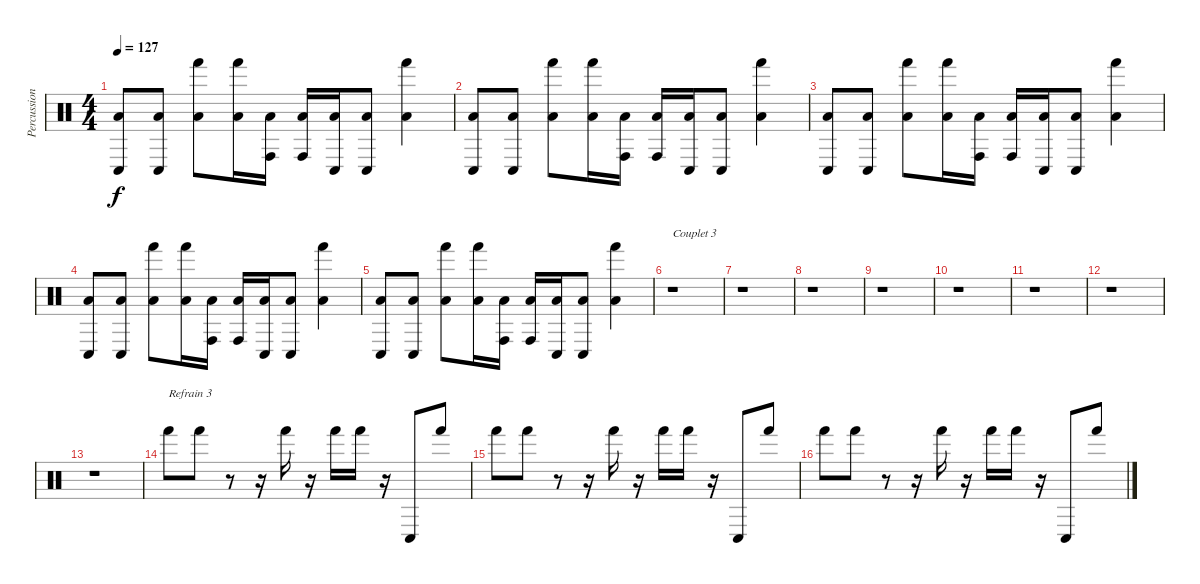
\track ("Percussions" "Percussion") {instrument percussion}
\staff {score}
\articulation defaults
\ts (4 4)
\tempo 127
\clef neutral
\ks c
("Conga low (hit)" "Low Floor Tom (hit)").8{dy f} ("Conga low (hit)" "Low Floor Tom (hit)").8 ("Hand (hit)" "Low Floor Tom (hit)").8 ("Hand (hit)" "Low Floor Tom (hit)").16 ("Conga high (hit)" "Low Floor Tom (hit)").16 ("Conga high (hit)" "Low Floor Tom (hit)").16 ("Conga low (hit)" "Low Floor Tom (hit)").16 ("Conga low (hit)" "Low Floor Tom (hit)").8 ("Hand (hit)" "Low Floor Tom (hit)").4 |
("Conga low (hit)" "Low Floor Tom (hit)").8 ("Conga low (hit)" "Low Floor Tom (hit)").8 ("Hand (hit)" "Low Floor Tom (hit)").8 ("Hand (hit)" "Low Floor Tom (hit)").16 ("Conga high (hit)" "Low Floor Tom (hit)").16 ("Conga high (hit)" "Low Floor Tom (hit)").16 ("Conga low (hit)" "Low Floor Tom (hit)").16 ("Conga low (hit)" "Low Floor Tom (hit)").8 ("Hand (hit)" "Low Floor Tom (hit)").4 |
("Conga low (hit)" "Low Floor Tom (hit)").8 ("Conga low (hit)" "Low Floor Tom (hit)").8 ("Hand (hit)" "Low Floor Tom (hit)").8 ("Hand (hit)" "Low Floor Tom (hit)").16 ("Conga high (hit)" "Low Floor Tom (hit)").16 ("Conga high (hit)" "Low Floor Tom (hit)").16 ("Conga low (hit)" "Low Floor Tom (hit)").16 ("Conga low (hit)" "Low Floor Tom (hit)").8 ("Hand (hit)" "Low Floor Tom (hit)").4 |
("Conga low (hit)" "Low Floor Tom (hit)").8 ("Conga low (hit)" "Low Floor Tom (hit)").8 ("Hand (hit)" "Low Floor Tom (hit)").8 ("Hand (hit)" "Low Floor Tom (hit)").16 ("Conga high (hit)" "Low Floor Tom (hit)").16 ("Conga high (hit)" "Low Floor Tom (hit)").16 ("Conga low (hit)" "Low Floor Tom (hit)").16 ("Conga low (hit)" "Low Floor Tom (hit)").8 ("Hand (hit)" "Low Floor Tom (hit)").4 |
("Conga low (hit)" "Low Floor Tom (hit)").8 ("Conga low (hit)" "Low Floor Tom (hit)").8 ("Hand (hit)" "Low Floor Tom (hit)").8 ("Hand (hit)" "Low Floor Tom (hit)").16 ("Conga high (hit)" "Low Floor Tom (hit)").16 ("Conga high (hit)" "Low Floor Tom (hit)").16 ("Conga low (hit)" "Low Floor Tom (hit)").16 ("Conga low (hit)" "Low Floor Tom (hit)").8 ("Hand (hit)" "Low Floor Tom (hit)").4 |
r.1{txt "Couplet 3"} |
r.1 |
r.1 |
r.1 |
r.1 |
r.1 |
r.1 |
r.1 |
"Hand (hit)".8{txt "Refrain 3"} "Hand (hit)".8 r.8 r.16 "Hand (hit)".16 r.16 "Hand (hit)".16 "Hand (hit)".16 r.16 "Conga low (hit)".8 "Hand (hit)".8 |
"Hand (hit)".8 "Hand (hit)".8 r.8 r.16 "Hand (hit)".16 r.16 "Hand (hit)".16 "Hand (hit)".16 r.16 "Conga low (hit)".8 "Hand (hit)".8 |
"Hand (hit)".8 "Hand (hit)".8 r.8 r.16 "Hand (hit)".16 r.16 "Hand (hit)".16 "Hand (hit)".16 r.16 "Conga low (hit)".8 "Hand (hit)".8
